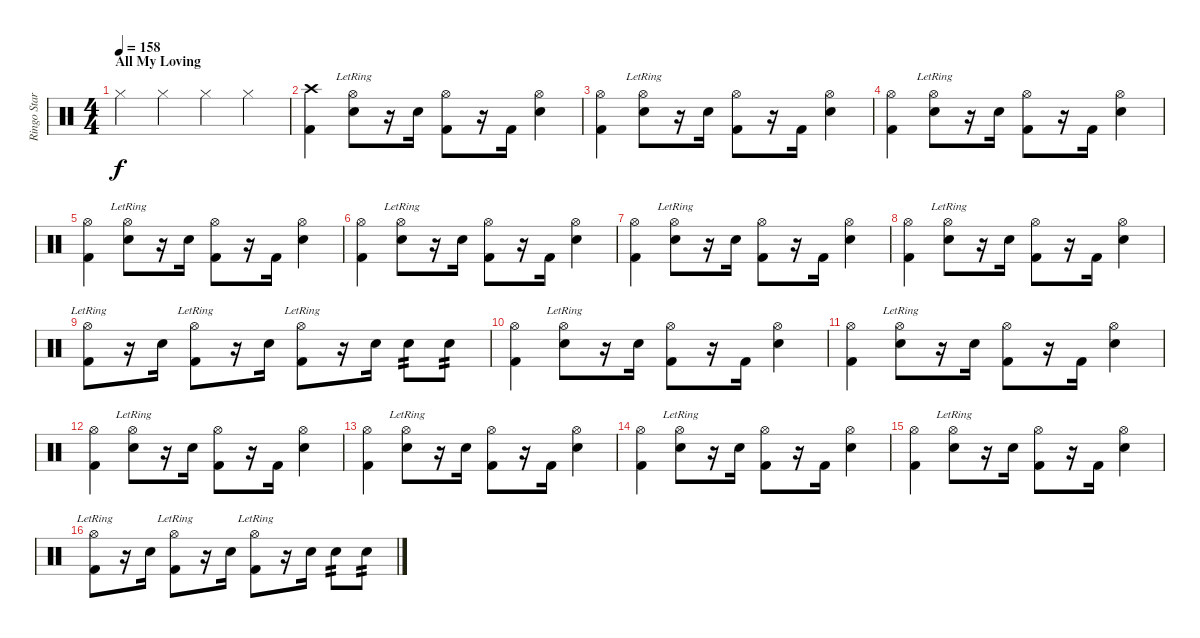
\track ("Ringo Star" "Ringo Star") {instrument percussion}
\staff {score}
\articulation defaults
\ts (4 4)
\section ("" "All My Loving")
\tempo 158
\clef neutral
\ks c "Hi-Hat (closed)".4{dy f} "Hi-Hat (closed)".4 "Hi-Hat (closed)".4 "Hi-Hat (closed)".4
|
("Crash high (hit)" "Kick (hit) 2").4 ("Hi-Hat (open)"{lr} "Snare (hit) 2").8 r.16 "Snare (hit) 2".16 ("Hi-Hat (open)" "Kick (hit) 2").8 r.16 "Kick (hit) 2".16 ("Hi-Hat (open)" "Snare (hit) 2").4 |
("Hi-Hat (open)" "Kick (hit) 2").4 ("Hi-Hat (open)"{lr} "Snare (hit) 2").8 r.16 "Snare (hit) 2".16 ("Hi-Hat (open)" "Kick (hit) 2").8 r.16 "Kick (hit) 2".16 ("Hi-Hat (open)" "Snare (hit) 2").4 |
("Hi-Hat (open)" "Kick (hit) 2").4 ("Hi-Hat (open)"{lr} "Snare (hit) 2").8 r.16 "Snare (hit) 2".16 ("Hi-Hat (open)" "Kick (hit) 2").8 r.16 "Kick (hit) 2".16 ("Hi-Hat (open)" "Snare (hit) 2").4 |
("Hi-Hat (open)" "Kick (hit) 2").4 ("Hi-Hat (open)"{lr} "Snare (hit) 2").8 r.16 "Snare (hit) 2".16 ("Hi-Hat (open)" "Kick (hit) 2").8 r.16 "Kick (hit) 2".16 ("Hi-Hat (open)" "Snare (hit) 2").4 |
("Hi-Hat (open)" "Kick (hit) 2").4 ("Hi-Hat (open)"{lr} "Snare (hit) 2").8 r.16 "Snare (hit) 2".16 ("Hi-Hat (open)" "Kick (hit) 2").8 r.16 "Kick (hit) 2".16 ("Hi-Hat (open)" "Snare (hit) 2").4 |
("Hi-Hat (open)" "Kick (hit) 2").4 ("Hi-Hat (open)"{lr} "Snare (hit) 2").8 r.16 "Snare (hit) 2".16 ("Hi-Hat (open)" "Kick (hit) 2").8 r.16 "Kick (hit) 2".16 ("Hi-Hat (open)" "Snare (hit) 2").4 |
("Hi-Hat (open)" "Kick (hit) 2").4 ("Hi-Hat (open)"{lr} "Snare (hit) 2").8 r.16 "Snare (hit) 2".16 ("Hi-Hat (open)" "Kick (hit) 2").8 r.16 "Kick (hit) 2".16 ("Hi-Hat (open)" "Snare (hit) 2").4 |
("Hi-Hat (open)"{lr} "Kick (hit) 2").8 r.16 "Snare (hit) 2".16 ("Hi-Hat (open)"{lr} "Kick (hit) 2").8 r.16 "Snare (hit) 2".16 ("Hi-Hat (open)"{lr} "Kick (hit) 2").8 r.16 "Snare (hit) 2".16 "Snare (hit) 2".8{tp 2} "Snare (hit) 2".8{tp 2} |
("Hi-Hat (open)" "Kick (hit) 2").4 ("Hi-Hat (open)"{lr} "Snare (hit) 2").8 r.16 "Snare (hit) 2".16 ("Hi-Hat (open)" "Kick (hit) 2").8 r.16 "Kick (hit) 2".16 ("Hi-Hat (open)" "Snare (hit) 2").4 |
("Hi-Hat (open)" "Kick (hit) 2").4 ("Hi-Hat (open)"{lr} "Snare (hit) 2").8 r.16 "Snare (hit) 2".16 ("Hi-Hat (open)" "Kick (hit) 2").8 r.16 "Kick (hit) 2".16 ("Hi-Hat (open)" "Snare (hit) 2").4 |
("Hi-Hat (open)" "Kick (hit) 2").4 ("Hi-Hat (open)"{lr} "Snare (hit) 2").8 r.16 "Snare (hit) 2".16 ("Hi-Hat (open)" "Kick (hit) 2").8 r.16 "Kick (hit) 2".16 ("Hi-Hat (open)" "Snare (hit) 2").4 |
("Hi-Hat (open)" "Kick (hit) 2").4 ("Hi-Hat (open)"{lr} "Snare (hit) 2").8 r.16 "Snare (hit) 2".16 ("Hi-Hat (open)" "Kick (hit) 2").8 r.16 "Kick (hit) 2".16 ("Hi-Hat (open)" "Snare (hit) 2").4 |
("Hi-Hat (open)" "Kick (hit) 2").4 ("Hi-Hat (open)"{lr} "Snare (hit) 2").8 r.16 "Snare (hit) 2".16 ("Hi-Hat (open)" "Kick (hit) 2").8 r.16 "Kick (hit) 2".16 ("Hi-Hat (open)" "Snare (hit) 2").4 |
("Hi-Hat (open)" "Kick (hit) 2").4 ("Hi-Hat (open)"{lr} "Snare (hit) 2").8 r.16 "Snare (hit) 2".16 ("Hi-Hat (open)" "Kick (hit) 2").8 r.16 "Kick (hit) 2".16 ("Hi-Hat (open)" "Snare (hit) 2").4 |
("Hi-Hat (open)"{lr} "Kick (hit) 2").8 r.16 "Snare (hit) 2".16 ("Hi-Hat (open)"{lr} "Kick (hit) 2").8 r.16 "Snare (hit) 2".16 ("Hi-Hat (open)"{lr} "Kick (hit) 2").8 r.16 "Snare (hit) 2".16 "Snare (hit) 2".8{tp 2} "Snare (hit) 2".8{tp 2}
